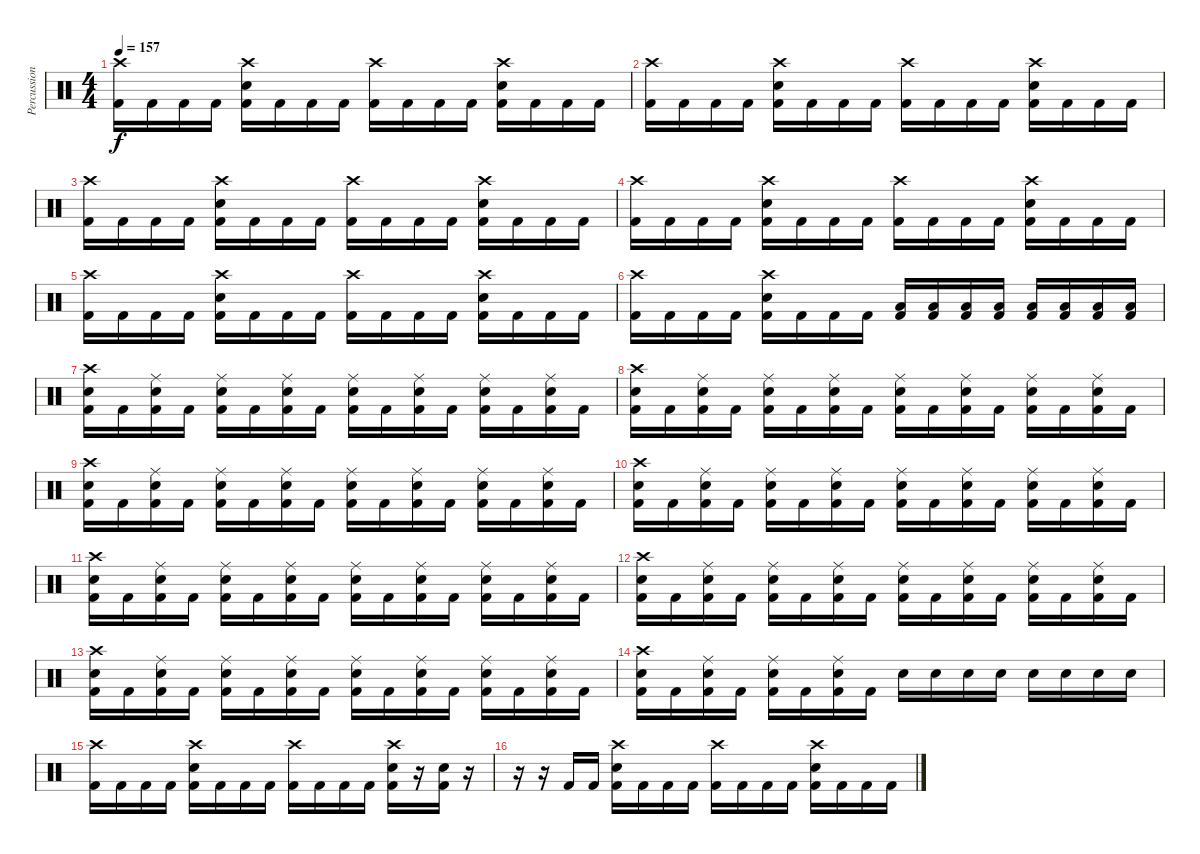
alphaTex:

\track ("Percussion" "Percussion") {instrument percussion}
\staff {score}
\articulation defaults
\ts (4 4)
\tempo 157
\clef neutral
\ks c
("Crash high (hit)" "Kick (hit) 2").16{dy f} "Kick (hit) 2".16 "Kick (hit) 2".16 "Kick (hit) 2".16 ("Crash high (hit)" "Electric Snare (hit)" "Kick (hit) 2").16 "Kick (hit) 2".16 "Kick (hit) 2".16 "Kick (hit) 2".16 ("Crash high (hit)" "Kick (hit) 2").16 "Kick (hit) 2".16 "Kick (hit) 2".16 "Kick (hit) 2".16 ("Crash high (hit)" "Electric Snare (hit)" "Kick (hit) 2").16 "Kick (hit) 2".16 "Kick (hit) 2".16 "Kick (hit) 2".16 |
("Crash high (hit)" "Kick (hit) 2").16 "Kick (hit) 2".16 "Kick (hit) 2".16 "Kick (hit) 2".16 ("Crash high (hit)" "Electric Snare (hit)" "Kick (hit) 2").16 "Kick (hit) 2".16 "Kick (hit) 2".16 "Kick (hit) 2".16 ("Crash high (hit)" "Kick (hit) 2").16 "Kick (hit) 2".16 "Kick (hit) 2".16 "Kick (hit) 2".16 ("Crash high (hit)" "Electric Snare (hit)" "Kick (hit) 2").16 "Kick (hit) 2".16 "Kick (hit) 2".16 "Kick (hit) 2".16 |
("Crash high (hit)" "Kick (hit) 2").16 "Kick (hit) 2".16 "Kick (hit) 2".16 "Kick (hit) 2".16 ("Crash high (hit)" "Electric Snare (hit)" "Kick (hit) 2").16 "Kick (hit) 2".16 "Kick (hit) 2".16 "Kick (hit) 2".16 ("Crash high (hit)" "Kick (hit) 2").16 "Kick (hit) 2".16 "Kick (hit) 2".16 "Kick (hit) 2".16 ("Crash high (hit)" "Electric Snare (hit)" "Kick (hit) 2").16 "Kick (hit) 2".16 "Kick (hit) 2".16 "Kick (hit) 2".16 |
("Crash high (hit)" "Kick (hit) 2").16 "Kick (hit) 2".16 "Kick (hit) 2".16 "Kick (hit) 2".16 ("Crash high (hit)" "Electric Snare (hit)" "Kick (hit) 2").16 "Kick (hit) 2".16 "Kick (hit) 2".16 "Kick (hit) 2".16 ("Crash high (hit)" "Kick (hit) 2").16 "Kick (hit) 2".16 "Kick (hit) 2".16 "Kick (hit) 2".16 ("Crash high (hit)" "Electric Snare (hit)" "Kick (hit) 2").16 "Kick (hit) 2".16 "Kick (hit) 2".16 "Kick (hit) 2".16 |
("Crash high (hit)" "Kick (hit) 2").16 "Kick (hit) 2".16 "Kick (hit) 2".16 "Kick (hit) 2".16 ("Crash high (hit)" "Electric Snare (hit)" "Kick (hit) 2").16 "Kick (hit) 2".16 "Kick (hit) 2".16 "Kick (hit) 2".16 ("Crash high (hit)" "Kick (hit) 2").16 "Kick (hit) 2".16 "Kick (hit) 2".16 "Kick (hit) 2".16 ("Crash high (hit)" "Electric Snare (hit)" "Kick (hit) 2").16 "Kick (hit) 2".16 "Kick (hit) 2".16 "Kick (hit) 2".16 |
("Crash high (hit)" "Kick (hit) 2").16 "Kick (hit) 2".16 "Kick (hit) 2".16 "Kick (hit) 2".16 ("Crash high (hit)" "Electric Snare (hit)" "Kick (hit) 2").16 "Kick (hit) 2".16 "Kick (hit) 2".16 "Kick (hit) 2".16 ("Low Tom (hit)" "Kick (hit) 2").16 ("Low Tom (hit)" "Kick (hit) 2").16 ("Low Tom (hit)" "Kick (hit) 2").16 ("Low Tom (hit)" "Kick (hit) 2").16 ("Low Floor Tom (hit)" "Kick (hit) 2").16 ("Low Floor Tom (hit)" "Kick (hit) 2").16 ("Low Floor Tom (hit)" "Kick (hit) 2").16 ("Low Floor Tom (hit)" "Kick (hit) 2").16 |
("Crash high (hit)" "Electric Snare (hit)" "Kick (hit) 2").16 "Kick (hit) 2".16 ("Ride (middle)" "Electric Snare (hit)" "Kick (hit) 2").16 "Kick (hit) 2".16 ("Ride (middle)" "Electric Snare (hit)" "Kick (hit) 2").16 "Kick (hit) 2".16 ("Ride (middle)" "Electric Snare (hit)" "Kick (hit) 2").16 "Kick (hit) 2".16 ("Ride (middle)" "Electric Snare (hit)" "Kick (hit) 2").16 "Kick (hit) 2".16 ("Ride (middle)" "Electric Snare (hit)" "Kick (hit) 2").16 "Kick (hit) 2".16 ("Ride (middle)" "Electric Snare (hit)" "Kick (hit) 2").16 "Kick (hit) 2".16 ("Ride (middle)" "Electric Snare (hit)" "Kick (hit) 2").16 "Kick (hit) 2".16 |
("Crash high (hit)" "Electric Snare (hit)" "Kick (hit) 2").16 "Kick (hit) 2".16 ("Ride (middle)" "Electric Snare (hit)" "Kick (hit) 2").16 "Kick (hit) 2".16 ("Ride (middle)" "Electric Snare (hit)" "Kick (hit) 2").16 "Kick (hit) 2".16 ("Ride (middle)" "Electric Snare (hit)" "Kick (hit) 2").16 "Kick (hit) 2".16 ("Ride (middle)" "Electric Snare (hit)" "Kick (hit) 2").16 "Kick (hit) 2".16 ("Ride (middle)" "Electric Snare (hit)" "Kick (hit) 2").16 "Kick (hit) 2".16 ("Ride (middle)" "Electric Snare (hit)" "Kick (hit) 2").16 "Kick (hit) 2".16 ("Ride (middle)" "Electric Snare (hit)" "Kick (hit) 2").16 "Kick (hit) 2".16 |
("Crash high (hit)" "Electric Snare (hit)" "Kick (hit) 2").16 "Kick (hit) 2".16 ("Ride (middle)" "Electric Snare (hit)" "Kick (hit) 2").16 "Kick (hit) 2".16 ("Ride (middle)" "Electric Snare (hit)" "Kick (hit) 2").16 "Kick (hit) 2".16 ("Ride (middle)" "Electric Snare (hit)" "Kick (hit) 2").16 "Kick (hit) 2".16 ("Ride (middle)" "Electric Snare (hit)" "Kick (hit) 2").16 "Kick (hit) 2".16 ("Ride (middle)" "Electric Snare (hit)" "Kick (hit) 2").16 "Kick (hit) 2".16 ("Ride (middle)" "Electric Snare (hit)" "Kick (hit) 2").16 "Kick (hit) 2".16 ("Ride (middle)" "Electric Snare (hit)" "Kick (hit) 2").16 "Kick (hit) 2".16 |
("Crash high (hit)" "Electric Snare (hit)" "Kick (hit) 2").16 "Kick (hit) 2".16 ("Ride (middle)" "Electric Snare (hit)" "Kick (hit) 2").16 "Kick (hit) 2".16 ("Ride (middle)" "Electric Snare (hit)" "Kick (hit) 2").16 "Kick (hit) 2".16 ("Ride (middle)" "Electric Snare (hit)" "Kick (hit) 2").16 "Kick (hit) 2".16 ("Ride (middle)" "Electric Snare (hit)" "Kick (hit) 2").16 "Kick (hit) 2".16 ("Ride (middle)" "Electric Snare (hit)" "Kick (hit) 2").16 "Kick (hit) 2".16 ("Ride (middle)" "Electric Snare (hit)" "Kick (hit) 2").16 "Kick (hit) 2".16 ("Ride (middle)" "Electric Snare (hit)" "Kick (hit) 2").16 "Kick (hit) 2".16 |
("Crash high (hit)" "Electric Snare (hit)" "Kick (hit) 2").16 "Kick (hit) 2".16 ("Ride (middle)" "Electric Snare (hit)" "Kick (hit) 2").16 "Kick (hit) 2".16 ("Ride (middle)" "Electric Snare (hit)" "Kick (hit) 2").16 "Kick (hit) 2".16 ("Ride (middle)" "Electric Snare (hit)" "Kick (hit) 2").16 "Kick (hit) 2".16 ("Ride (middle)" "Electric Snare (hit)" "Kick (hit) 2").16 "Kick (hit) 2".16 ("Ride (middle)" "Electric Snare (hit)" "Kick (hit) 2").16 "Kick (hit) 2".16 ("Ride (middle)" "Electric Snare (hit)" "Kick (hit) 2").16 "Kick (hit) 2".16 ("Ride (middle)" "Electric Snare (hit)" "Kick (hit) 2").16 "Kick (hit) 2".16 |
("Crash high (hit)" "Electric Snare (hit)" "Kick (hit) 2").16 "Kick (hit) 2".16 ("Ride (middle)" "Electric Snare (hit)" "Kick (hit) 2").16 "Kick (hit) 2".16 ("Ride (middle)" "Electric Snare (hit)" "Kick (hit) 2").16 "Kick (hit) 2".16 ("Ride (middle)" "Electric Snare (hit)" "Kick (hit) 2").16 "Kick (hit) 2".16 ("Ride (middle)" "Electric Snare (hit)" "Kick (hit) 2").16 "Kick (hit) 2".16 ("Ride (middle)" "Electric Snare (hit)" "Kick (hit) 2").16 "Kick (hit) 2".16 ("Ride (middle)" "Electric Snare (hit)" "Kick (hit) 2").16 "Kick (hit) 2".16 ("Ride (middle)" "Electric Snare (hit)" "Kick (hit) 2").16 "Kick (hit) 2".16 |
("Crash high (hit)" "Electric Snare (hit)" "Kick (hit) 2").16 "Kick (hit) 2".16 ("Ride (middle)" "Electric Snare (hit)" "Kick (hit) 2").16 "Kick (hit) 2".16 ("Ride (middle)" "Electric Snare (hit)" "Kick (hit) 2").16 "Kick (hit) 2".16 ("Ride (middle)" "Electric Snare (hit)" "Kick (hit) 2").16 "Kick (hit) 2".16 ("Ride (middle)" "Electric Snare (hit)" "Kick (hit) 2").16 "Kick (hit) 2".16 ("Ride (middle)" "Electric Snare (hit)" "Kick (hit) 2").16 "Kick (hit) 2".16 ("Ride (middle)" "Electric Snare (hit)" "Kick (hit) 2").16 "Kick (hit) 2".16 ("Ride (middle)" "Electric Snare (hit)" "Kick (hit) 2").16 "Kick (hit) 2".16 |
("Crash high (hit)" "Electric Snare (hit)" "Kick (hit) 2").16 "Kick (hit) 2".16 ("Ride (middle)" "Electric Snare (hit)" "Kick (hit) 2").16 "Kick (hit) 2".16 ("Ride (middle)" "Electric Snare (hit)" "Kick (hit) 2").16 "Kick (hit) 2".16 ("Ride (middle)" "Electric Snare (hit)" "Kick (hit) 2").16 "Kick (hit) 2".16 "Electric Snare (hit)".16 "Electric Snare (hit)".16 "Electric Snare (hit)".16 "Electric Snare (hit)".16 "Electric Snare (hit)".16 "Electric Snare (hit)".16 "Electric Snare (hit)".16 "Electric Snare (hit)".16 |
("Crash high (hit)" "Kick (hit) 2").16 "Kick (hit) 2".16 "Kick (hit) 2".16 "Kick (hit) 2".16 ("Crash high (hit)" "Electric Snare (hit)" "Kick (hit) 2").16 "Kick (hit) 2".16 "Kick (hit) 2".16 "Kick (hit) 2".16 ("Crash high (hit)" "Kick (hit) 2").16 "Kick (hit) 2".16 "Kick (hit) 2".16 "Kick (hit) 2".16 ("Crash high (hit)" "Electric Snare (hit)" "Kick (hit) 2").16 r.16 ("Electric Snare (hit)" "Kick (hit) 2").16 r.16 |
r.16 r.16 "Kick (hit) 2".16 "Kick (hit) 2".16 ("Crash high (hit)" "Electric Snare (hit)" "Kick (hit) 2").16 "Kick (hit) 2".16 "Kick (hit) 2".16 "Kick (hit) 2".16 ("Crash high (hit)" "Kick (hit) 2").16 "Kick (hit) 2".16 "Kick (hit) 2".16 "Kick (hit) 2".16 ("Crash high (hit)" "Electric Snare (hit)" "Kick (hit) 2").16 "Kick (hit) 2".16 "Kick (hit) 2".16 "Kick (hit) 2".16
